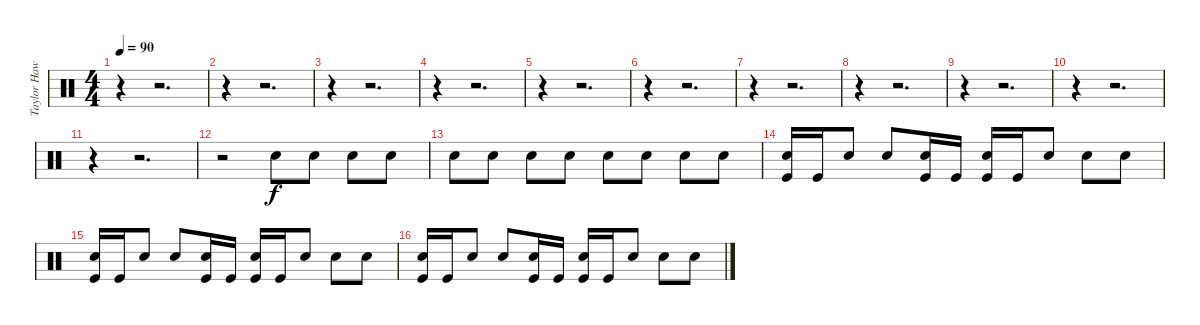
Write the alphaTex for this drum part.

\track ("Taylor Hawkins - Drums" "Taylor Haw") {instrument percussion}
\staff {score}
\articulation defaults
\ts (4 4)
\tempo 90
\clef neutral
\ks c
r.4{dy f} r.2{d} |
r.4 r.2{d} |
r.4 r.2{d} |
r.4 r.2{d} |
r.4 r.2{d} |
r.4 r.2{d} |
r.4 r.2{d} |
r.4 r.2{d} |
r.4 r.2{d} |
r.4 r.2{d} |
r.4 r.2{d} |
r.2 "Electric Snare (hit)".8 "Electric Snare (hit)".8 "Electric Snare (hit)".8 "Electric Snare (hit)".8 |
"Electric Snare (hit)".8 "Electric Snare (hit)".8 "Electric Snare (hit)".8 "Electric Snare (hit)".8 "Electric Snare (hit)".8 "Electric Snare (hit)".8 "Electric Snare (hit)".8 "Electric Snare (hit)".8 |
("Electric Snare (hit)" "Kick (hit)").16 "Kick (hit)".16 "Electric Snare (hit)".8 "Electric Snare (hit)".8 ("Electric Snare (hit)" "Kick (hit)").16 "Kick (hit)".16 ("Electric Snare (hit)" "Kick (hit)").16 "Kick (hit)".16 "Electric Snare (hit)".8 "Electric Snare (hit)".8 "Electric Snare (hit)".8 |
("Electric Snare (hit)" "Kick (hit)").16 "Kick (hit)".16 "Electric Snare (hit)".8 "Electric Snare (hit)".8 ("Electric Snare (hit)" "Kick (hit)").16 "Kick (hit)".16 ("Electric Snare (hit)" "Kick (hit)").16 "Kick (hit)".16 "Electric Snare (hit)".8 "Electric Snare (hit)".8 "Electric Snare (hit)".8 |
("Electric Snare (hit)" "Kick (hit)").16 "Kick (hit)".16 "Electric Snare (hit)".8 "Electric Snare (hit)".8 ("Electric Snare (hit)" "Kick (hit)").16 "Kick (hit)".16 ("Electric Snare (hit)" "Kick (hit)").16 "Kick (hit)".16 "Electric Snare (hit)".8 "Electric Snare (hit)".8 "Electric Snare (hit)".8
